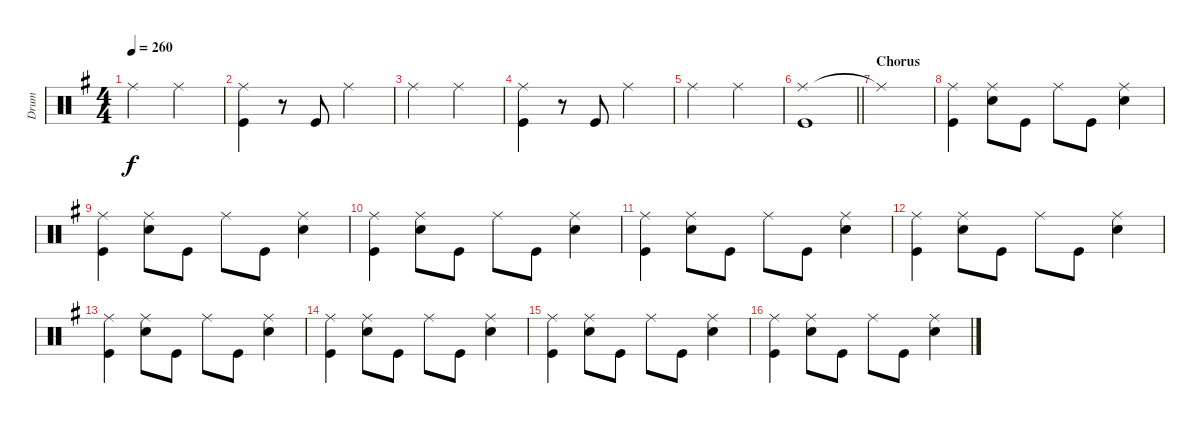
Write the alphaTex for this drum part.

\track ("Drum" "Drum") {instrument percussion}
\staff {score}
\articulation defaults
\ts (4 4)
\tempo 260
\clef neutral
\ks g "Ride (middle)".2{dy f} "Ride (middle)".2
|
("Ride (middle)" "Kick (hit)").4 r.8 "Kick (hit)".8 "Ride (middle)".2 |
"Ride (middle)".2 "Ride (middle)".2 |
("Ride (middle)" "Kick (hit)").4 r.8 "Kick (hit)".8 "Ride (middle)".2 |
"Ride (middle)".2 "Ride (middle)".2 |
\barLineRight lightlight
("Ride (middle)" "Kick (hit)").1 |
\section ("" "Chorus")
"Ride (middle)"{t}.1 |
("Ride (middle)" "Kick (hit)").4 ("Ride (middle)" "Snare (hit) 2").8 "Kick (hit)".8 "Ride (middle)".8 "Kick (hit)".8 ("Ride (middle)" "Snare (hit) 2").4 |
("Ride (middle)" "Kick (hit)").4 ("Ride (middle)" "Snare (hit) 2").8 "Kick (hit)".8 "Ride (middle)".8 "Kick (hit)".8 ("Ride (middle)" "Snare (hit) 2").4 |
("Ride (middle)" "Kick (hit)").4 ("Ride (middle)" "Snare (hit) 2").8 "Kick (hit)".8 "Ride (middle)".8 "Kick (hit)".8 ("Ride (middle)" "Snare (hit) 2").4 |
("Ride (middle)" "Kick (hit)").4 ("Ride (middle)" "Snare (hit) 2").8 "Kick (hit)".8 "Ride (middle)".8 "Kick (hit)".8 ("Ride (middle)" "Snare (hit) 2").4 |
("Ride (middle)" "Kick (hit)").4 ("Ride (middle)" "Snare (hit) 2").8 "Kick (hit)".8 "Ride (middle)".8 "Kick (hit)".8 ("Ride (middle)" "Snare (hit) 2").4 |
("Ride (middle)" "Kick (hit)").4 ("Ride (middle)" "Snare (hit) 2").8 "Kick (hit)".8 "Ride (middle)".8 "Kick (hit)".8 ("Ride (middle)" "Snare (hit) 2").4 |
("Ride (middle)" "Kick (hit)").4 ("Ride (middle)" "Snare (hit) 2").8 "Kick (hit)".8 "Ride (middle)".8 "Kick (hit)".8 ("Ride (middle)" "Snare (hit) 2").4 |
("Ride (middle)" "Kick (hit)").4 ("Ride (middle)" "Snare (hit) 2").8 "Kick (hit)".8 "Ride (middle)".8 "Kick (hit)".8 ("Ride (middle)" "Snare (hit) 2").4 |
("Ride (middle)" "Kick (hit)").4 ("Ride (middle)" "Snare (hit) 2").8 "Kick (hit)".8 "Ride (middle)".8 "Kick (hit)".8 ("Ride (middle)" "Snare (hit) 2").4
